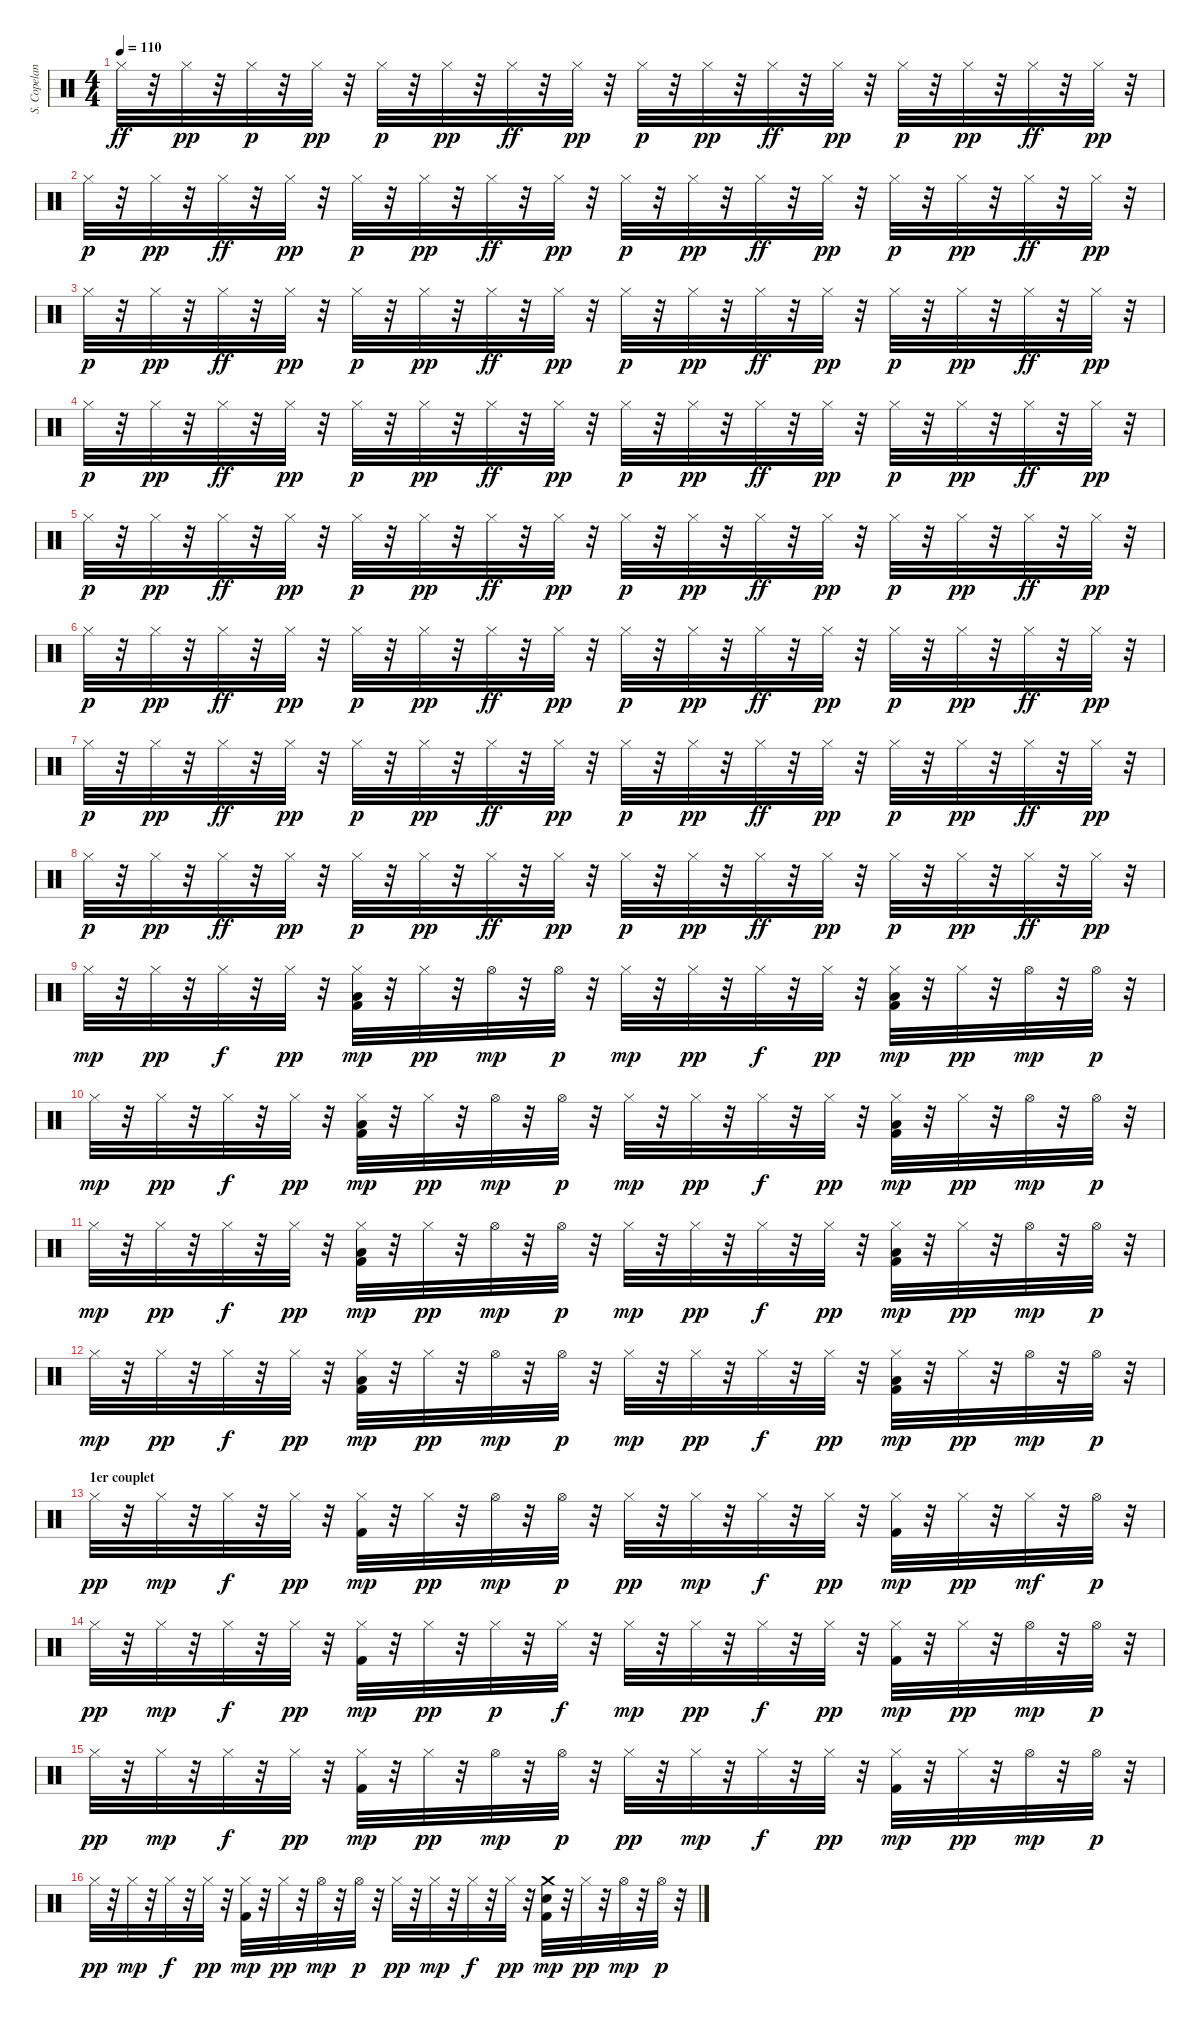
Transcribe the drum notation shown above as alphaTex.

\track ("S. Copeland" "S. Copelan") {instrument percussion}
\staff {score}
\articulation defaults
\ts (4 4)
\tempo 110
\clef neutral
\ks c "Hi-Hat (closed)".32{dy ff}
r.32 "Hi-Hat (closed)".32{dy pp} r.32 "Hi-Hat (closed)".32{dy p} r.32 "Hi-Hat (closed)".32{dy pp} r.32 "Hi-Hat (closed)".32{dy p} r.32 "Hi-Hat (closed)".32{dy pp} r.32 "Hi-Hat (closed)".32{dy ff} r.32 "Hi-Hat (closed)".32{dy pp} r.32 "Hi-Hat (closed)".32{dy p} r.32 "Hi-Hat (closed)".32{dy pp} r.32 "Hi-Hat (closed)".32{dy ff} r.32 "Hi-Hat (closed)".32{dy pp} r.32 "Hi-Hat (closed)".32{dy p} r.32 "Hi-Hat (closed)".32{dy pp} r.32 "Hi-Hat (closed)".32{dy ff} r.32 "Hi-Hat (closed)".32{dy pp} r.32 |
"Hi-Hat (closed)".32{dy p} r.32 "Hi-Hat (closed)".32{dy pp} r.32 "Hi-Hat (closed)".32{dy ff} r.32 "Hi-Hat (closed)".32{dy pp} r.32 "Hi-Hat (closed)".32{dy p} r.32 "Hi-Hat (closed)".32{dy pp} r.32 "Hi-Hat (closed)".32{dy ff} r.32 "Hi-Hat (closed)".32{dy pp} r.32 "Hi-Hat (closed)".32{dy p} r.32 "Hi-Hat (closed)".32{dy pp} r.32 "Hi-Hat (closed)".32{dy ff} r.32 "Hi-Hat (closed)".32{dy pp} r.32 "Hi-Hat (closed)".32{dy p} r.32 "Hi-Hat (closed)".32{dy pp} r.32 "Hi-Hat (closed)".32{dy ff} r.32 "Hi-Hat (closed)".32{dy pp} r.32 |
"Hi-Hat (closed)".32{dy p} r.32 "Hi-Hat (closed)".32{dy pp} r.32 "Hi-Hat (closed)".32{dy ff} r.32 "Hi-Hat (closed)".32{dy pp} r.32 "Hi-Hat (closed)".32{dy p} r.32 "Hi-Hat (closed)".32{dy pp} r.32 "Hi-Hat (closed)".32{dy ff} r.32 "Hi-Hat (closed)".32{dy pp} r.32 "Hi-Hat (closed)".32{dy p} r.32 "Hi-Hat (closed)".32{dy pp} r.32 "Hi-Hat (closed)".32{dy ff} r.32 "Hi-Hat (closed)".32{dy pp} r.32 "Hi-Hat (closed)".32{dy p} r.32 "Hi-Hat (closed)".32{dy pp} r.32 "Hi-Hat (closed)".32{dy ff} r.32 "Hi-Hat (closed)".32{dy pp} r.32 |
"Hi-Hat (closed)".32{dy p} r.32 "Hi-Hat (closed)".32{dy pp} r.32 "Hi-Hat (closed)".32{dy ff} r.32 "Hi-Hat (closed)".32{dy pp} r.32 "Hi-Hat (closed)".32{dy p} r.32 "Hi-Hat (closed)".32{dy pp} r.32 "Hi-Hat (closed)".32{dy ff} r.32 "Hi-Hat (closed)".32{dy pp} r.32 "Hi-Hat (closed)".32{dy p} r.32 "Hi-Hat (closed)".32{dy pp} r.32 "Hi-Hat (closed)".32{dy ff} r.32 "Hi-Hat (closed)".32{dy pp} r.32 "Hi-Hat (closed)".32{dy p} r.32 "Hi-Hat (closed)".32{dy pp} r.32 "Hi-Hat (closed)".32{dy ff} r.32 "Hi-Hat (closed)".32{dy pp} r.32 |
"Hi-Hat (closed)".32{dy p} r.32 "Hi-Hat (closed)".32{dy pp} r.32 "Hi-Hat (closed)".32{dy ff} r.32 "Hi-Hat (closed)".32{dy pp} r.32 "Hi-Hat (closed)".32{dy p} r.32 "Hi-Hat (closed)".32{dy pp} r.32 "Hi-Hat (closed)".32{dy ff} r.32 "Hi-Hat (closed)".32{dy pp} r.32 "Hi-Hat (closed)".32{dy p} r.32 "Hi-Hat (closed)".32{dy pp} r.32 "Hi-Hat (closed)".32{dy ff} r.32 "Hi-Hat (closed)".32{dy pp} r.32 "Hi-Hat (closed)".32{dy p} r.32 "Hi-Hat (closed)".32{dy pp} r.32 "Hi-Hat (closed)".32{dy ff} r.32 "Hi-Hat (closed)".32{dy pp} r.32 |
"Hi-Hat (closed)".32{dy p} r.32 "Hi-Hat (closed)".32{dy pp} r.32 "Hi-Hat (closed)".32{dy ff} r.32 "Hi-Hat (closed)".32{dy pp} r.32 "Hi-Hat (closed)".32{dy p} r.32 "Hi-Hat (closed)".32{dy pp} r.32 "Hi-Hat (closed)".32{dy ff} r.32 "Hi-Hat (closed)".32{dy pp} r.32 "Hi-Hat (closed)".32{dy p} r.32 "Hi-Hat (closed)".32{dy pp} r.32 "Hi-Hat (closed)".32{dy ff} r.32 "Hi-Hat (closed)".32{dy pp} r.32 "Hi-Hat (closed)".32{dy p} r.32 "Hi-Hat (closed)".32{dy pp} r.32 "Hi-Hat (closed)".32{dy ff} r.32 "Hi-Hat (closed)".32{dy pp} r.32 |
"Hi-Hat (closed)".32{dy p} r.32 "Hi-Hat (closed)".32{dy pp} r.32 "Hi-Hat (closed)".32{dy ff} r.32 "Hi-Hat (closed)".32{dy pp} r.32 "Hi-Hat (closed)".32{dy p} r.32 "Hi-Hat (closed)".32{dy pp} r.32 "Hi-Hat (closed)".32{dy ff} r.32 "Hi-Hat (closed)".32{dy pp} r.32 "Hi-Hat (closed)".32{dy p} r.32 "Hi-Hat (closed)".32{dy pp} r.32 "Hi-Hat (closed)".32{dy ff} r.32 "Hi-Hat (closed)".32{dy pp} r.32 "Hi-Hat (closed)".32{dy p} r.32 "Hi-Hat (closed)".32{dy pp} r.32 "Hi-Hat (closed)".32{dy ff} r.32 "Hi-Hat (closed)".32{dy pp} r.32 |
"Hi-Hat (closed)".32{dy p} r.32 "Hi-Hat (closed)".32{dy pp} r.32 "Hi-Hat (closed)".32{dy ff} r.32 "Hi-Hat (closed)".32{dy pp} r.32 "Hi-Hat (closed)".32{dy p} r.32 "Hi-Hat (closed)".32{dy pp} r.32 "Hi-Hat (closed)".32{dy ff} r.32 "Hi-Hat (closed)".32{dy pp} r.32 "Hi-Hat (closed)".32{dy p} r.32 "Hi-Hat (closed)".32{dy pp} r.32 "Hi-Hat (closed)".32{dy ff} r.32 "Hi-Hat (closed)".32{dy pp} r.32 "Hi-Hat (closed)".32{dy p} r.32 "Hi-Hat (closed)".32{dy pp} r.32 "Hi-Hat (closed)".32{dy ff} r.32 "Hi-Hat (closed)".32{dy pp} r.32 |
"Hi-Hat (closed)".32{dy mp} r.32 "Hi-Hat (closed)".32{dy pp} r.32 "Hi-Hat (closed)".32{dy f} r.32 "Hi-Hat (closed)".32{dy pp} r.32 ("Kick (hit) 2" "Low Floor Tom (hit)" "Hi-Hat (closed)").32{dy mp} r.32 "Hi-Hat (closed)".32{dy pp} r.32 "Hi-Hat (open)".32{dy mp} r.32 "Hi-Hat (open)".32{dy p} r.32 "Hi-Hat (closed)".32{dy mp} r.32 "Hi-Hat (closed)".32{dy pp} r.32 "Hi-Hat (closed)".32{dy f} r.32 "Hi-Hat (closed)".32{dy pp} r.32 ("Kick (hit) 2" "Low Floor Tom (hit)" "Hi-Hat (closed)").32{dy mp} r.32 "Hi-Hat (closed)".32{dy pp} r.32 "Hi-Hat (open)".32{dy mp} r.32 "Hi-Hat (open)".32{dy p} r.32 |
"Hi-Hat (closed)".32{dy mp} r.32 "Hi-Hat (closed)".32{dy pp} r.32 "Hi-Hat (closed)".32{dy f} r.32 "Hi-Hat (closed)".32{dy pp} r.32 ("Kick (hit) 2" "Low Floor Tom (hit)" "Hi-Hat (closed)").32{dy mp} r.32 "Hi-Hat (closed)".32{dy pp} r.32 "Hi-Hat (open)".32{dy mp} r.32 "Hi-Hat (open)".32{dy p} r.32 "Hi-Hat (closed)".32{dy mp} r.32 "Hi-Hat (closed)".32{dy pp} r.32 "Hi-Hat (closed)".32{dy f} r.32 "Hi-Hat (closed)".32{dy pp} r.32 ("Kick (hit) 2" "Low Floor Tom (hit)" "Hi-Hat (closed)").32{dy mp} r.32 "Hi-Hat (closed)".32{dy pp} r.32 "Hi-Hat (open)".32{dy mp} r.32 "Hi-Hat (open)".32{dy p} r.32 |
"Hi-Hat (closed)".32{dy mp} r.32 "Hi-Hat (closed)".32{dy pp} r.32 "Hi-Hat (closed)".32{dy f} r.32 "Hi-Hat (closed)".32{dy pp} r.32 ("Kick (hit) 2" "Low Floor Tom (hit)" "Hi-Hat (closed)").32{dy mp} r.32 "Hi-Hat (closed)".32{dy pp} r.32 "Hi-Hat (open)".32{dy mp} r.32 "Hi-Hat (open)".32{dy p} r.32 "Hi-Hat (closed)".32{dy mp} r.32 "Hi-Hat (closed)".32{dy pp} r.32 "Hi-Hat (closed)".32{dy f} r.32 "Hi-Hat (closed)".32{dy pp} r.32 ("Kick (hit) 2" "Low Floor Tom (hit)" "Hi-Hat (closed)").32{dy mp} r.32 "Hi-Hat (closed)".32{dy pp} r.32 "Hi-Hat (open)".32{dy mp} r.32 "Hi-Hat (open)".32{dy p} r.32 |
"Hi-Hat (closed)".32{dy mp} r.32 "Hi-Hat (closed)".32{dy pp} r.32 "Hi-Hat (closed)".32{dy f} r.32 "Hi-Hat (closed)".32{dy pp} r.32 ("Kick (hit) 2" "Low Floor Tom (hit)" "Hi-Hat (closed)").32{dy mp} r.32 "Hi-Hat (closed)".32{dy pp} r.32 "Hi-Hat (open)".32{dy mp} r.32 "Hi-Hat (open)".32{dy p} r.32 "Hi-Hat (closed)".32{dy mp} r.32 "Hi-Hat (closed)".32{dy pp} r.32 "Hi-Hat (closed)".32{dy f} r.32 "Hi-Hat (closed)".32{dy pp} r.32 ("Kick (hit) 2" "Low Floor Tom (hit)" "Hi-Hat (closed)").32{dy mp} r.32 "Hi-Hat (closed)".32{dy pp} r.32 "Hi-Hat (open)".32{dy mp} r.32 "Hi-Hat (open)".32{dy p} r.32 |
\section ("" "1er couplet")
"Hi-Hat (closed)".32{dy pp} r.32 "Hi-Hat (closed)".32{dy mp} r.32 "Hi-Hat (closed)".32{dy f} r.32 "Hi-Hat (closed)".32{dy pp} r.32 ("Kick (hit) 2" "Hi-Hat (closed)").32{dy mp} r.32 "Hi-Hat (closed)".32{dy pp} r.32 "Hi-Hat (open)".32{dy mp} r.32 "Hi-Hat (open)".32{dy p} r.32 "Hi-Hat (closed)".32{dy pp} r.32 "Hi-Hat (closed)".32{dy mp} r.32 "Hi-Hat (closed)".32{dy f} r.32 "Hi-Hat (closed)".32{dy pp} r.32 ("Kick (hit) 2" "Hi-Hat (closed)").32{dy mp} r.32 "Hi-Hat (closed)".32{dy pp} r.32 "Hi-Hat (closed)".32{dy mf} r.32 "Hi-Hat (open)".32{dy p} r.32 |
"Hi-Hat (closed)".32{dy pp} r.32 "Hi-Hat (closed)".32{dy mp} r.32 "Hi-Hat (closed)".32{dy f} r.32 "Hi-Hat (closed)".32{dy pp} r.32 ("Kick (hit) 2" "Hi-Hat (closed)").32{dy mp} r.32 "Hi-Hat (closed)".32{dy pp} r.32 "Hi-Hat (closed)".32{dy p} r.32 "Hi-Hat (closed)".32{dy f} r.32 "Hi-Hat (closed)".32{dy mp} r.32 "Hi-Hat (closed)".32{dy pp} r.32 "Hi-Hat (closed)".32{dy f} r.32 "Hi-Hat (closed)".32{dy pp} r.32 ("Kick (hit) 2" "Hi-Hat (closed)").32{dy mp} r.32 "Hi-Hat (closed)".32{dy pp} r.32 "Hi-Hat (open)".32{dy mp} r.32 "Hi-Hat (open)".32{dy p} r.32 |
"Hi-Hat (closed)".32{dy pp} r.32 "Hi-Hat (closed)".32{dy mp} r.32 "Hi-Hat (closed)".32{dy f} r.32 "Hi-Hat (closed)".32{dy pp} r.32 ("Kick (hit) 2" "Hi-Hat (closed)").32{dy mp} r.32 "Hi-Hat (closed)".32{dy pp} r.32 "Hi-Hat (open)".32{dy mp} r.32 "Hi-Hat (open)".32{dy p} r.32 "Hi-Hat (closed)".32{dy pp} r.32 "Hi-Hat (closed)".32{dy mp} r.32 "Hi-Hat (closed)".32{dy f} r.32 "Hi-Hat (closed)".32{dy pp} r.32 ("Kick (hit) 2" "Hi-Hat (closed)").32{dy mp} r.32 "Hi-Hat (closed)".32{dy pp} r.32 "Hi-Hat (open)".32{dy mp} r.32 "Hi-Hat (open)".32{dy p} r.32 |
"Hi-Hat (closed)".32{dy pp} r.32 "Hi-Hat (closed)".32{dy mp} r.32 "Hi-Hat (closed)".32{dy f} r.32 "Hi-Hat (closed)".32{dy pp} r.32 ("Kick (hit) 2" "Hi-Hat (closed)").32{dy mp} r.32 "Hi-Hat (closed)".32{dy pp} r.32 "Hi-Hat (open)".32{dy mp} r.32 "Hi-Hat (open)".32{dy p} r.32 "Hi-Hat (closed)".32{dy pp} r.32 "Hi-Hat (closed)".32{dy mp} r.32 "Hi-Hat (closed)".32{dy f} r.32 "Hi-Hat (closed)".32{dy pp} r.32 ("Kick (hit) 2" "Electric Snare (hit)" "Crash medium (hit)").32{dy mp} r.32 "Hi-Hat (closed)".32{dy pp} r.32 "Hi-Hat (open)".32{dy mp} r.32 "Hi-Hat (open)".32{dy p} r.32
